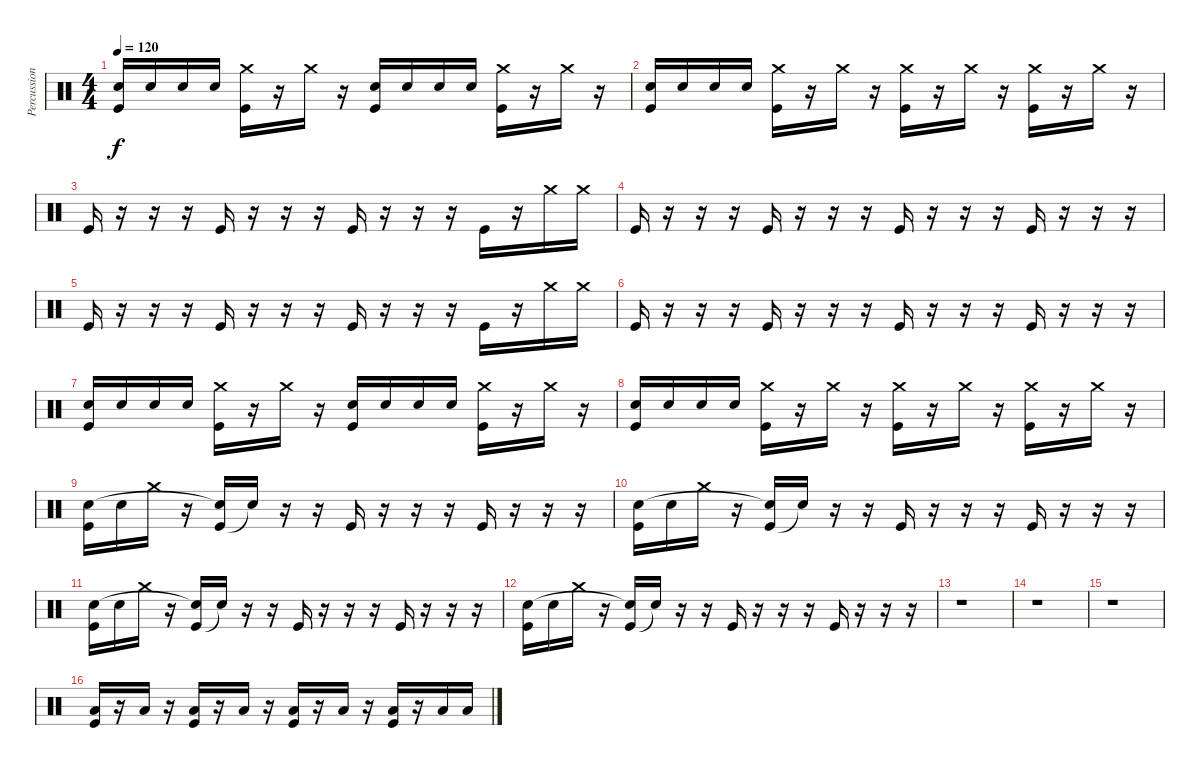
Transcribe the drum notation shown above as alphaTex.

\track ("Percussion" "Percussion") {instrument percussion}
\staff {score}
\articulation defaults
\ts (4 4)
\tempo 120
\clef neutral
\ks c
("Kick (hit)" "Snare (hit) 2").16{dy f} "Snare (hit) 2".16 "Snare (hit) 2".16 "Snare (hit) 2".16 ("Kick (hit)" "Crash medium (hit)").16 r.16 "Crash medium (hit)".16 r.16 ("Kick (hit)" "Snare (hit) 2").16 "Snare (hit) 2".16 "Snare (hit) 2".16 "Snare (hit) 2".16 ("Kick (hit)" "Crash medium (hit)").16 r.16 "Crash medium (hit)".16 r.16 |
("Kick (hit)" "Snare (hit) 2").16 "Snare (hit) 2".16 "Snare (hit) 2".16 "Snare (hit) 2".16 ("Kick (hit)" "Crash medium (hit)").16 r.16 "Crash medium (hit)".16 r.16 ("Kick (hit)" "Crash medium (hit)").16 r.16 "Crash medium (hit)".16 r.16 ("Kick (hit)" "Crash medium (hit)").16 r.16 "Crash medium (hit)".16 r.16 |
"Kick (hit)".16 r.16 r.16 r.16 "Kick (hit)".16 r.16 r.16 r.16 "Kick (hit)".16 r.16 r.16 r.16 "Kick (hit)".16 r.16 "Crash medium (hit)".16 "Crash medium (hit)".16 |
"Kick (hit)".16 r.16 r.16 r.16 "Kick (hit)".16 r.16 r.16 r.16 "Kick (hit)".16 r.16 r.16 r.16 "Kick (hit)".16 r.16 r.16 r.16 |
"Kick (hit)".16 r.16 r.16 r.16 "Kick (hit)".16 r.16 r.16 r.16 "Kick (hit)".16 r.16 r.16 r.16 "Kick (hit)".16 r.16 "Crash medium (hit)".16 "Crash medium (hit)".16 |
"Kick (hit)".16 r.16 r.16 r.16 "Kick (hit)".16 r.16 r.16 r.16 "Kick (hit)".16 r.16 r.16 r.16 "Kick (hit)".16 r.16 r.16 r.16 |
("Kick (hit)" "Snare (hit) 2").16 "Snare (hit) 2".16 "Snare (hit) 2".16 "Snare (hit) 2".16 ("Kick (hit)" "Crash medium (hit)").16 r.16 "Crash medium (hit)".16 r.16 ("Kick (hit)" "Snare (hit) 2").16 "Snare (hit) 2".16 "Snare (hit) 2".16 "Snare (hit) 2".16 ("Kick (hit)" "Crash medium (hit)").16 r.16 "Crash medium (hit)".16 r.16 |
("Kick (hit)" "Snare (hit) 2").16 "Snare (hit) 2".16 "Snare (hit) 2".16 "Snare (hit) 2".16 ("Kick (hit)" "Crash medium (hit)").16 r.16 "Crash medium (hit)".16 r.16 ("Kick (hit)" "Crash medium (hit)").16 r.16 "Crash medium (hit)".16 r.16 ("Kick (hit)" "Crash medium (hit)").16 r.16 "Crash medium (hit)".16 r.16 |
("Kick (hit)" "Snare (hit) 2").16 "Snare (hit) 2".16 "Crash medium (hit)".16 r.16 ("Kick (hit)" "Snare (hit)"{t}).16 "Snare (hit)"{t}.16 r.16 r.16 "Kick (hit)".16 r.16 r.16 r.16 "Kick (hit)".16 r.16 r.16 r.16 |
("Kick (hit)" "Snare (hit) 2").16 "Snare (hit) 2".16 "Crash medium (hit)".16 r.16 ("Kick (hit)" "Snare (hit)"{t}).16 "Snare (hit)"{t}.16 r.16 r.16 "Kick (hit)".16 r.16 r.16 r.16 "Kick (hit)".16 r.16 r.16 r.16 |
("Kick (hit)" "Snare (hit) 2").16 "Snare (hit) 2".16 "Crash medium (hit)".16 r.16 ("Kick (hit)" "Snare (hit)"{t}).16 "Snare (hit)"{t}.16 r.16 r.16 "Kick (hit)".16 r.16 r.16 r.16 "Kick (hit)".16 r.16 r.16 r.16 |
("Kick (hit)" "Snare (hit) 2").16 "Snare (hit) 2".16 "Crash medium (hit)".16 r.16 ("Kick (hit)" "Snare (hit)"{t}).16 "Snare (hit)"{t}.16 r.16 r.16 "Kick (hit)".16 r.16 r.16 r.16 "Kick (hit)".16 r.16 r.16 r.16 |
r.1 |
r.1 |
r.1 |
("Kick (hit)" "Low Tom (hit)").16 r.16 "Low Tom (hit)".16 r.16 ("Kick (hit)" "Low Tom (hit)").16 r.16 "Low Tom (hit)".16 r.16 ("Kick (hit)" "Low Tom (hit)").16 r.16 "Low Tom (hit)".16 r.16 ("Kick (hit)" "Low Tom (hit)").16 r.16 "Low Tom (hit)".16 "Low Tom (hit)".16
